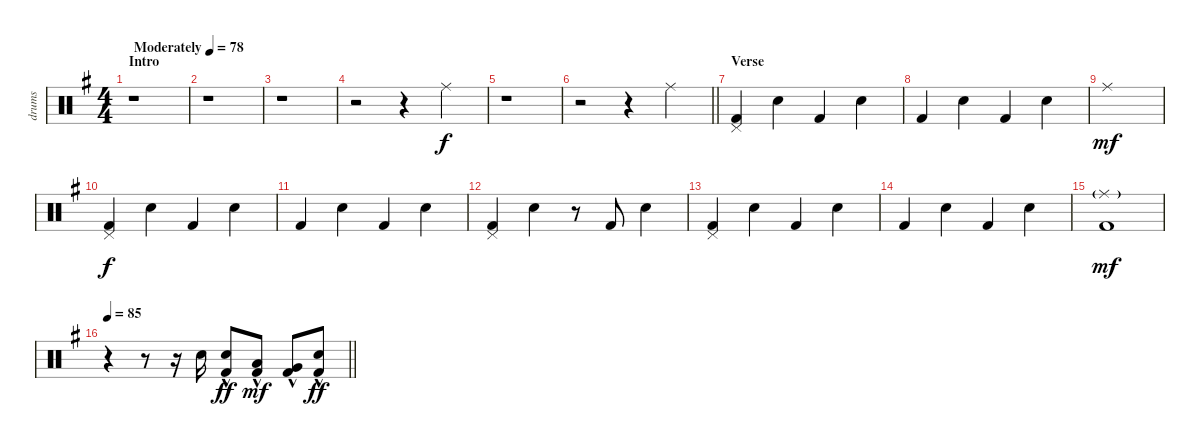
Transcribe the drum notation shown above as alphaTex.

\track ("drums" "drums") {instrument percussion}
\staff {score}
\articulation defaults
\ts (4 4)
\section ("" "Intro")
\tempo (78 "Moderately")
\clef neutral
\ks g
r.1{dy f} |
r.1 |
r.1 |
r.2 r.4 "Ride (middle)".4 |
r.1 |
\barLineRight lightlight
r.2 r.4 "Ride (middle)".4 |
\section ("" "Verse")
("Pedal Hi-Hat (hit)" "Kick (hit) 2").4 "Electric Snare (hit)".4 "Kick (hit) 2".4 "Electric Snare (hit)".4 |
"Kick (hit) 2".4 "Electric Snare (hit)".4 "Kick (hit) 2".4 "Electric Snare (hit)".4 |
"Ride (middle)".1{dy mf} |
("Pedal Hi-Hat (hit)" "Kick (hit) 2").4{dy f} "Electric Snare (hit)".4 "Kick (hit) 2".4 "Electric Snare (hit)".4 |
"Kick (hit) 2".4 "Electric Snare (hit)".4 "Kick (hit) 2".4 "Electric Snare (hit)".4 |
("Pedal Hi-Hat (hit)" "Kick (hit) 2").4 "Electric Snare (hit)".4 r.8 "Kick (hit) 2".8 "Electric Snare (hit)".4 |
("Pedal Hi-Hat (hit)" "Kick (hit) 2").4 "Electric Snare (hit)".4 "Kick (hit) 2".4 "Electric Snare (hit)".4 |
"Kick (hit) 2".4 "Electric Snare (hit)".4 "Kick (hit) 2".4 "Electric Snare (hit)".4 |
("Ride (middle)"{g} "Kick (hit) 2").1{dy mf} |
\tempo 85
\barLineRight lightlight
r.4 r.8 r.16 "Snare (hit) 2".16 ("Electric Snare (hit)"{hac} "Kick (hit) 2"{hac}).8{dy ff} ("Low Tom (hit)"{hac} "Kick (hit) 2").8{dy mf} ("Very Low Tom (hit)"{hac} "Kick (hit) 2").8 ("Snare (hit) 2"{hac} "Kick (hit) 2"{hac}).8{dy ff}
